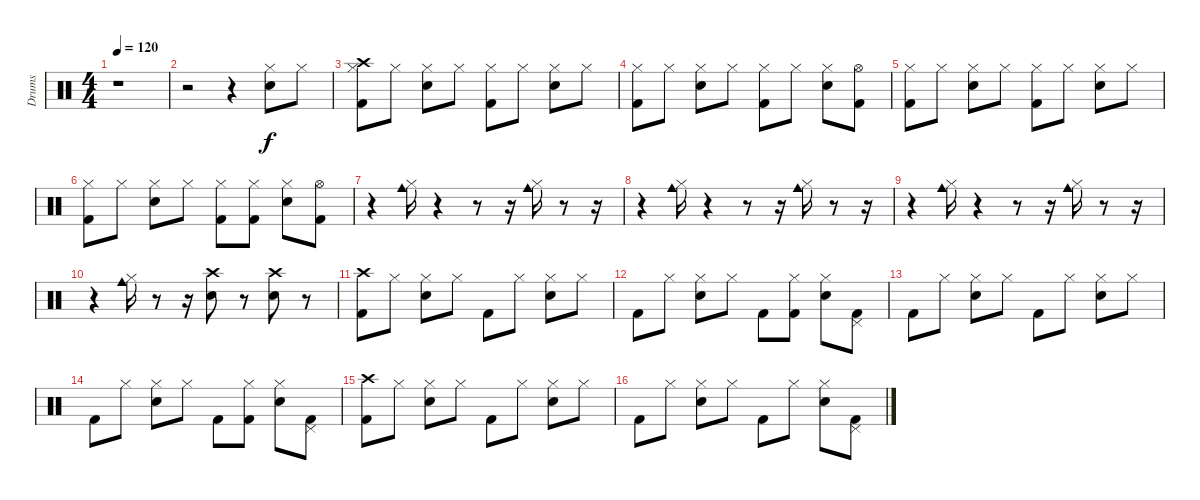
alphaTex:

\track ("Drums" "Drums") {instrument percussion}
\staff {score}
\articulation defaults
\ts (4 4)
\tempo 120
\clef neutral
\ks c
r.1{dy f} |
r.2 r.4 ("Hi-Hat (closed)" "Snare (hit) 2").8 "Hi-Hat (closed)".8 |
("Hi-Hat (closed)" "Crash high (hit)" "Kick (hit) 2").8 "Hi-Hat (closed)".8 ("Hi-Hat (closed)" "Snare (hit) 2").8 "Hi-Hat (closed)".8 ("Hi-Hat (closed)" "Kick (hit) 2").8 "Hi-Hat (closed)".8 ("Hi-Hat (closed)" "Snare (hit) 2").8 "Hi-Hat (closed)".8 |
("Hi-Hat (closed)" "Kick (hit) 2").8 "Hi-Hat (closed)".8 ("Hi-Hat (closed)" "Snare (hit) 2").8 "Hi-Hat (closed)".8 ("Hi-Hat (closed)" "Kick (hit) 2").8 "Hi-Hat (closed)".8 ("Hi-Hat (closed)" "Snare (hit) 2").8 ("Hi-Hat (open)" "Kick (hit) 2").8 |
("Hi-Hat (closed)" "Kick (hit) 2").8 "Hi-Hat (closed)".8 ("Hi-Hat (closed)" "Snare (hit) 2").8 "Hi-Hat (closed)".8 ("Hi-Hat (closed)" "Kick (hit) 2").8 "Hi-Hat (closed)".8 ("Hi-Hat (closed)" "Snare (hit) 2").8 "Hi-Hat (closed)".8 |
("Hi-Hat (closed)" "Kick (hit) 2").8 "Hi-Hat (closed)".8 ("Hi-Hat (closed)" "Snare (hit) 2").8 "Hi-Hat (closed)".8 ("Hi-Hat (closed)" "Kick (hit) 2").8 ("Hi-Hat (closed)" "Kick (hit) 2").8 ("Hi-Hat (closed)" "Snare (hit) 2").8 ("Hi-Hat (open)" "Kick (hit) 2").8 |
r.4 ("Hi-Hat (closed)" "Cowbell medium (hit)").16 r.4 r.8 r.16 ("Hi-Hat (closed)" "Cowbell medium (hit)").16 r.8 r.16 |
r.4 ("Hi-Hat (closed)" "Cowbell medium (hit)").16 r.4 r.8 r.16 ("Hi-Hat (closed)" "Cowbell medium (hit)").16 r.8 r.16 |
r.4 ("Hi-Hat (closed)" "Cowbell medium (hit)").16 r.4 r.8 r.16 ("Hi-Hat (closed)" "Cowbell medium (hit)").16 r.8 r.16 |
r.4 ("Hi-Hat (closed)" "Cowbell medium (hit)").16 r.8 r.16 ("Snare (hit) 2" "Crash high (hit)").8 r.8 ("Snare (hit) 2" "Crash high (hit)").8 r.8 |
("Crash high (hit)" "Kick (hit) 2").8 "Hi-Hat (closed)".8 ("Hi-Hat (closed)" "Snare (hit) 2").8 "Hi-Hat (closed)".8 "Kick (hit) 2".8 "Hi-Hat (closed)".8 ("Hi-Hat (closed)" "Snare (hit) 2").8 "Hi-Hat (closed)".8 |
"Kick (hit) 2".8 "Hi-Hat (closed)".8 ("Hi-Hat (closed)" "Snare (hit) 2").8 "Hi-Hat (closed)".8 "Kick (hit) 2".8 ("Hi-Hat (closed)" "Kick (hit) 2").8 ("Hi-Hat (closed)" "Snare (hit) 2").8 ("Pedal Hi-Hat (hit)" "Kick (hit) 2").8 |
"Kick (hit) 2".8 "Hi-Hat (closed)".8 ("Hi-Hat (closed)" "Snare (hit) 2").8 "Hi-Hat (closed)".8 "Kick (hit) 2".8 "Hi-Hat (closed)".8 ("Hi-Hat (closed)" "Snare (hit) 2").8 "Hi-Hat (closed)".8 |
"Kick (hit) 2".8 "Hi-Hat (closed)".8 ("Hi-Hat (closed)" "Snare (hit) 2").8 "Hi-Hat (closed)".8 "Kick (hit) 2".8 ("Hi-Hat (closed)" "Kick (hit) 2").8 ("Hi-Hat (closed)" "Snare (hit) 2").8 ("Pedal Hi-Hat (hit)" "Kick (hit) 2").8 |
("Crash high (hit)" "Kick (hit) 2").8 "Hi-Hat (closed)".8 ("Hi-Hat (closed)" "Snare (hit) 2").8 "Hi-Hat (closed)".8 "Kick (hit) 2".8 "Hi-Hat (closed)".8 ("Hi-Hat (closed)" "Snare (hit) 2").8 "Hi-Hat (closed)".8 |
"Kick (hit) 2".8 "Hi-Hat (closed)".8 ("Hi-Hat (closed)" "Snare (hit) 2").8 "Hi-Hat (closed)".8 "Kick (hit) 2".8 "Hi-Hat (closed)".8 ("Hi-Hat (closed)" "Snare (hit) 2").8 ("Pedal Hi-Hat (hit)" "Kick (hit) 2").8
